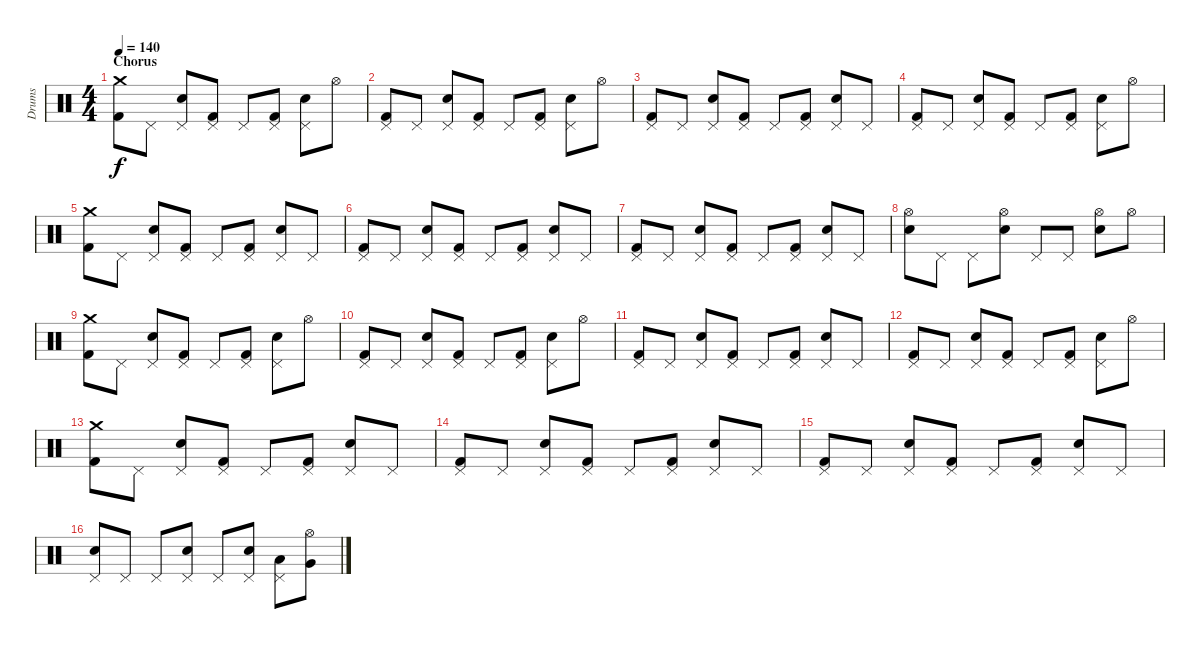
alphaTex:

\track ("Drums" "Drums") {instrument percussion}
\staff {score}
\articulation defaults
\ts (4 4)
\section ("" "Chorus")
\tempo 140
\clef neutral
\ks c
("Crash medium (hit)" "Kick (hit) 2").8{dy f} "Pedal Hi-Hat (hit)".8 ("Pedal Hi-Hat (hit)" "Electric Snare (hit)").8 ("Pedal Hi-Hat (hit)" "Kick (hit) 2").8 "Pedal Hi-Hat (hit)".8 ("Pedal Hi-Hat (hit)" "Kick (hit) 2").8 ("Pedal Hi-Hat (hit)" "Electric Snare (hit)").8 "Hi-Hat (open)".8 |
("Pedal Hi-Hat (hit)" "Kick (hit) 2").8 "Pedal Hi-Hat (hit)".8 ("Pedal Hi-Hat (hit)" "Electric Snare (hit)").8 ("Pedal Hi-Hat (hit)" "Kick (hit) 2").8 "Pedal Hi-Hat (hit)".8 ("Pedal Hi-Hat (hit)" "Kick (hit) 2").8 ("Pedal Hi-Hat (hit)" "Electric Snare (hit)").8 "Hi-Hat (open)".8 |
("Pedal Hi-Hat (hit)" "Kick (hit) 2").8 "Pedal Hi-Hat (hit)".8 ("Pedal Hi-Hat (hit)" "Electric Snare (hit)").8 ("Pedal Hi-Hat (hit)" "Kick (hit) 2").8 "Pedal Hi-Hat (hit)".8 ("Pedal Hi-Hat (hit)" "Kick (hit) 2").8 ("Pedal Hi-Hat (hit)" "Electric Snare (hit)").8 "Pedal Hi-Hat (hit)".8 |
("Pedal Hi-Hat (hit)" "Kick (hit) 2").8 "Pedal Hi-Hat (hit)".8 ("Pedal Hi-Hat (hit)" "Electric Snare (hit)").8 ("Pedal Hi-Hat (hit)" "Kick (hit) 2").8 "Pedal Hi-Hat (hit)".8 ("Pedal Hi-Hat (hit)" "Kick (hit) 2").8 ("Pedal Hi-Hat (hit)" "Electric Snare (hit)").8 "Hi-Hat (open)".8 |
("Crash medium (hit)" "Kick (hit) 2").8 "Pedal Hi-Hat (hit)".8 ("Pedal Hi-Hat (hit)" "Electric Snare (hit)").8 ("Pedal Hi-Hat (hit)" "Kick (hit) 2").8 "Pedal Hi-Hat (hit)".8 ("Pedal Hi-Hat (hit)" "Kick (hit) 2").8 ("Pedal Hi-Hat (hit)" "Electric Snare (hit)").8 "Pedal Hi-Hat (hit)".8 |
("Pedal Hi-Hat (hit)" "Kick (hit) 2").8 "Pedal Hi-Hat (hit)".8 ("Pedal Hi-Hat (hit)" "Electric Snare (hit)").8 ("Pedal Hi-Hat (hit)" "Kick (hit) 2").8 "Pedal Hi-Hat (hit)".8 ("Pedal Hi-Hat (hit)" "Kick (hit) 2").8 ("Pedal Hi-Hat (hit)" "Electric Snare (hit)").8 "Pedal Hi-Hat (hit)".8 |
("Pedal Hi-Hat (hit)" "Kick (hit) 2").8 "Pedal Hi-Hat (hit)".8 ("Pedal Hi-Hat (hit)" "Electric Snare (hit)").8 ("Pedal Hi-Hat (hit)" "Kick (hit) 2").8 "Pedal Hi-Hat (hit)".8 ("Pedal Hi-Hat (hit)" "Kick (hit) 2").8 ("Pedal Hi-Hat (hit)" "Electric Snare (hit)").8 "Pedal Hi-Hat (hit)".8 |
("Hi-Hat (open)" "Electric Snare (hit)").8 "Pedal Hi-Hat (hit)".8 "Pedal Hi-Hat (hit)".8 ("Hi-Hat (open)" "Electric Snare (hit)").8 "Pedal Hi-Hat (hit)".8 "Pedal Hi-Hat (hit)".8 ("Hi-Hat (open)" "Electric Snare (hit)").8 "Hi-Hat (open)".8 |
("Crash medium (hit)" "Kick (hit) 2").8 "Pedal Hi-Hat (hit)".8 ("Pedal Hi-Hat (hit)" "Electric Snare (hit)").8 ("Pedal Hi-Hat (hit)" "Kick (hit) 2").8 "Pedal Hi-Hat (hit)".8 ("Pedal Hi-Hat (hit)" "Kick (hit) 2").8 ("Pedal Hi-Hat (hit)" "Electric Snare (hit)").8 "Hi-Hat (open)".8 |
("Pedal Hi-Hat (hit)" "Kick (hit) 2").8 "Pedal Hi-Hat (hit)".8 ("Pedal Hi-Hat (hit)" "Electric Snare (hit)").8 ("Pedal Hi-Hat (hit)" "Kick (hit) 2").8 "Pedal Hi-Hat (hit)".8 ("Pedal Hi-Hat (hit)" "Kick (hit) 2").8 ("Pedal Hi-Hat (hit)" "Electric Snare (hit)").8 "Hi-Hat (open)".8 |
("Pedal Hi-Hat (hit)" "Kick (hit) 2").8 "Pedal Hi-Hat (hit)".8 ("Pedal Hi-Hat (hit)" "Electric Snare (hit)").8 ("Pedal Hi-Hat (hit)" "Kick (hit) 2").8 "Pedal Hi-Hat (hit)".8 ("Pedal Hi-Hat (hit)" "Kick (hit) 2").8 ("Pedal Hi-Hat (hit)" "Electric Snare (hit)").8 "Pedal Hi-Hat (hit)".8 |
("Pedal Hi-Hat (hit)" "Kick (hit) 2").8 "Pedal Hi-Hat (hit)".8 ("Pedal Hi-Hat (hit)" "Electric Snare (hit)").8 ("Pedal Hi-Hat (hit)" "Kick (hit) 2").8 "Pedal Hi-Hat (hit)".8 ("Pedal Hi-Hat (hit)" "Kick (hit) 2").8 ("Pedal Hi-Hat (hit)" "Electric Snare (hit)").8 "Hi-Hat (open)".8 |
("Crash medium (hit)" "Kick (hit) 2").8 "Pedal Hi-Hat (hit)".8 ("Pedal Hi-Hat (hit)" "Electric Snare (hit)").8 ("Pedal Hi-Hat (hit)" "Kick (hit) 2").8 "Pedal Hi-Hat (hit)".8 ("Pedal Hi-Hat (hit)" "Kick (hit) 2").8 ("Pedal Hi-Hat (hit)" "Electric Snare (hit)").8 "Pedal Hi-Hat (hit)".8 |
("Pedal Hi-Hat (hit)" "Kick (hit) 2").8 "Pedal Hi-Hat (hit)".8 ("Pedal Hi-Hat (hit)" "Electric Snare (hit)").8 ("Pedal Hi-Hat (hit)" "Kick (hit) 2").8 "Pedal Hi-Hat (hit)".8 ("Pedal Hi-Hat (hit)" "Kick (hit) 2").8 ("Pedal Hi-Hat (hit)" "Electric Snare (hit)").8 "Pedal Hi-Hat (hit)".8 |
("Pedal Hi-Hat (hit)" "Kick (hit) 2").8 "Pedal Hi-Hat (hit)".8 ("Pedal Hi-Hat (hit)" "Electric Snare (hit)").8 ("Pedal Hi-Hat (hit)" "Kick (hit) 2").8 "Pedal Hi-Hat (hit)".8 ("Pedal Hi-Hat (hit)" "Kick (hit) 2").8 ("Pedal Hi-Hat (hit)" "Electric Snare (hit)").8 "Pedal Hi-Hat (hit)".8 |
("Pedal Hi-Hat (hit)" "Electric Snare (hit)").8 "Pedal Hi-Hat (hit)".8 "Pedal Hi-Hat (hit)".8 ("Pedal Hi-Hat (hit)" "Electric Snare (hit)").8 "Pedal Hi-Hat (hit)".8 ("Pedal Hi-Hat (hit)" "Electric Snare (hit)").8 ("Pedal Hi-Hat (hit)" "Low Tom (hit)").8 ("Hi-Hat (open)" "Very Low Tom (hit)").8
